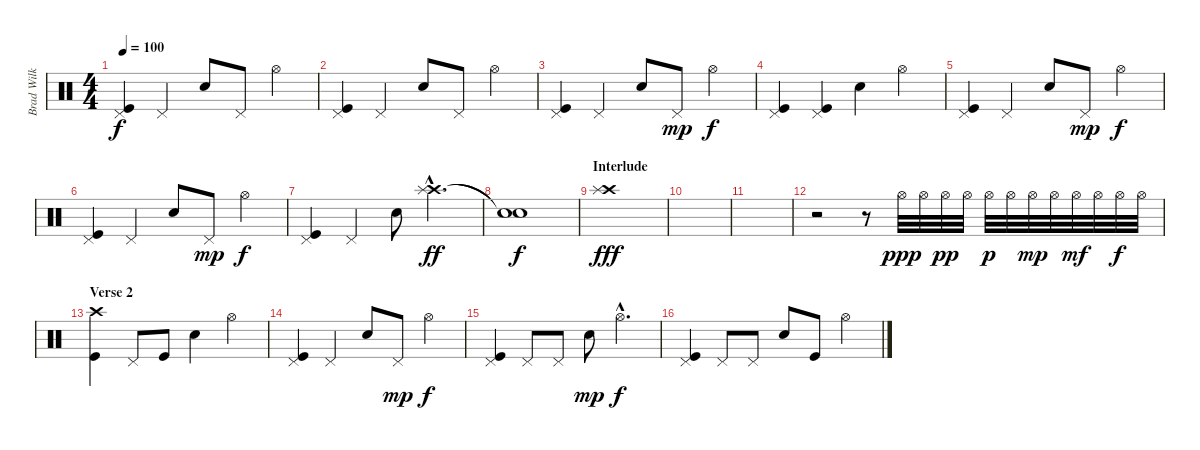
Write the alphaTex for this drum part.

\track ("Brad Wilk - Drums" "Brad Wilk ") {instrument percussion}
\staff {score}
\articulation defaults
\ts (4 4)
\tempo 100
\clef neutral
\ks c
("Pedal Hi-Hat (hit)" "Kick (hit)").4{dy f} "Pedal Hi-Hat (hit)".4 "Electric Snare (hit)".8 "Pedal Hi-Hat (hit)".8 "Hi-Hat (open)".4 |
("Pedal Hi-Hat (hit)" "Kick (hit)").4 "Pedal Hi-Hat (hit)".4 "Electric Snare (hit)".8 "Pedal Hi-Hat (hit)".8 "Hi-Hat (open)".4 |
("Pedal Hi-Hat (hit)" "Kick (hit)").4 "Pedal Hi-Hat (hit)".4 "Electric Snare (hit)".8 "Pedal Hi-Hat (hit)".8{dy mp} "Hi-Hat (open)".4{dy f} |
("Pedal Hi-Hat (hit)" "Kick (hit)").4 ("Pedal Hi-Hat (hit)" "Kick (hit)").4 "Electric Snare (hit)".4 "Hi-Hat (open)".4 |
("Pedal Hi-Hat (hit)" "Kick (hit)").4 "Pedal Hi-Hat (hit)".4 "Electric Snare (hit)".8 "Pedal Hi-Hat (hit)".8{dy mp} "Hi-Hat (open)".4{dy f} |
("Pedal Hi-Hat (hit)" "Kick (hit)").4 "Pedal Hi-Hat (hit)".4 "Electric Snare (hit)".8 "Pedal Hi-Hat (hit)".8{dy mp} "Hi-Hat (open)".4{dy f} |
("Pedal Hi-Hat (hit)" "Kick (hit)").4 "Pedal Hi-Hat (hit)".4 "Electric Snare (hit)".8 ("Crash high (hit)"{hac} "Splash (hit)"{hac}).4{d dy ff} |
("Snare (hit)"{t} "Snare (hit)"{t}).1{dy f} |
\section ("" "Interlude")
("Crash high (hit)" "Splash (hit)").1{dy fff} |
|
|
r.2 r.8 "Hi-Hat (open)".32{dy ppp} "Hi-Hat (open)".32 "Hi-Hat (open)".32{dy pp} "Hi-Hat (open)".32 "Hi-Hat (open)".32{dy p} "Hi-Hat (open)".32 "Hi-Hat (open)".32{dy mp} "Hi-Hat (open)".32 "Hi-Hat (open)".32{dy mf} "Hi-Hat (open)".32 "Hi-Hat (open)".32{dy f} "Hi-Hat (open)".32 |
\section ("" "Verse 2")
("Crash high (hit)" "Kick (hit)").4 "Pedal Hi-Hat (hit)".8 "Kick (hit)".8 "Electric Snare (hit)".4 "Hi-Hat (open)".4 |
("Pedal Hi-Hat (hit)" "Kick (hit)").4 "Pedal Hi-Hat (hit)".4 "Electric Snare (hit)".8 "Pedal Hi-Hat (hit)".8{dy mp} "Hi-Hat (open)".4{dy f} |
("Pedal Hi-Hat (hit)" "Kick (hit)").4 "Pedal Hi-Hat (hit)".8 "Pedal Hi-Hat (hit)".8 "Electric Snare (hit)".8{dy mp} "Hi-Hat (open)"{hac}.4{d dy f} |
("Pedal Hi-Hat (hit)" "Kick (hit)").4 "Pedal Hi-Hat (hit)".8 "Pedal Hi-Hat (hit)".8 "Electric Snare (hit)".8 "Kick (hit)".8 "Hi-Hat (open)".4
